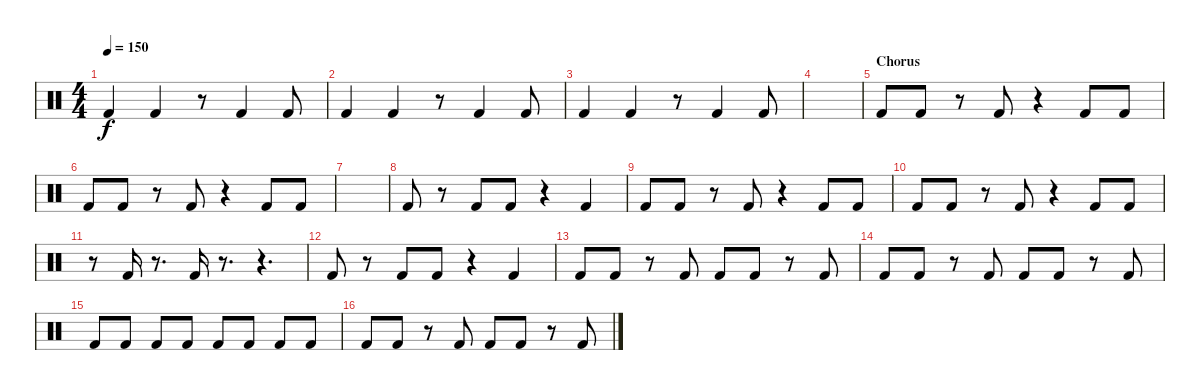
\track "" {instrument percussion}
\staff {score}
\articulation defaults
\ts (4 4)
\tempo 150
\clef neutral
\ks c "Kick (hit) 2".4{dy f} "Kick (hit) 2".4
r.8 "Kick (hit) 2".4 "Kick (hit) 2".8 |
"Kick (hit) 2".4 "Kick (hit) 2".4 r.8 "Kick (hit) 2".4 "Kick (hit) 2".8 |
"Kick (hit) 2".4 "Kick (hit) 2".4 r.8 "Kick (hit) 2".4 "Kick (hit) 2".8 |
|
\section ("" "Chorus")
"Kick (hit) 2".8 "Kick (hit) 2".8 r.8 "Kick (hit) 2".8 r.4 "Kick (hit) 2".8 "Kick (hit) 2".8 |
"Kick (hit) 2".8 "Kick (hit) 2".8 r.8 "Kick (hit) 2".8 r.4 "Kick (hit) 2".8 "Kick (hit) 2".8 |
|
"Kick (hit) 2".8 r.8 "Kick (hit) 2".8 "Kick (hit) 2".8 r.4 "Kick (hit) 2".4 |
"Kick (hit) 2".8 "Kick (hit) 2".8 r.8 "Kick (hit) 2".8 r.4 "Kick (hit) 2".8 "Kick (hit) 2".8 |
"Kick (hit) 2".8 "Kick (hit) 2".8 r.8 "Kick (hit) 2".8 r.4 "Kick (hit) 2".8 "Kick (hit) 2".8 |
r.8 "Kick (hit) 2".16 r.8{d} "Kick (hit) 2".16 r.8{d} r.4{d} |
"Kick (hit) 2".8 r.8 "Kick (hit) 2".8 "Kick (hit) 2".8 r.4 "Kick (hit) 2".4 |
"Kick (hit) 2".8 "Kick (hit) 2".8 r.8 "Kick (hit) 2".8 "Kick (hit) 2".8 "Kick (hit) 2".8 r.8 "Kick (hit) 2".8 |
"Kick (hit) 2".8 "Kick (hit) 2".8 r.8 "Kick (hit) 2".8 "Kick (hit) 2".8 "Kick (hit) 2".8 r.8 "Kick (hit) 2".8 |
"Kick (hit) 2".8 "Kick (hit) 2".8 "Kick (hit) 2".8 "Kick (hit) 2".8 "Kick (hit) 2".8 "Kick (hit) 2".8 "Kick (hit) 2".8 "Kick (hit) 2".8 |
"Kick (hit) 2".8 "Kick (hit) 2".8 r.8 "Kick (hit) 2".8 "Kick (hit) 2".8 "Kick (hit) 2".8 r.8 "Kick (hit) 2".8
